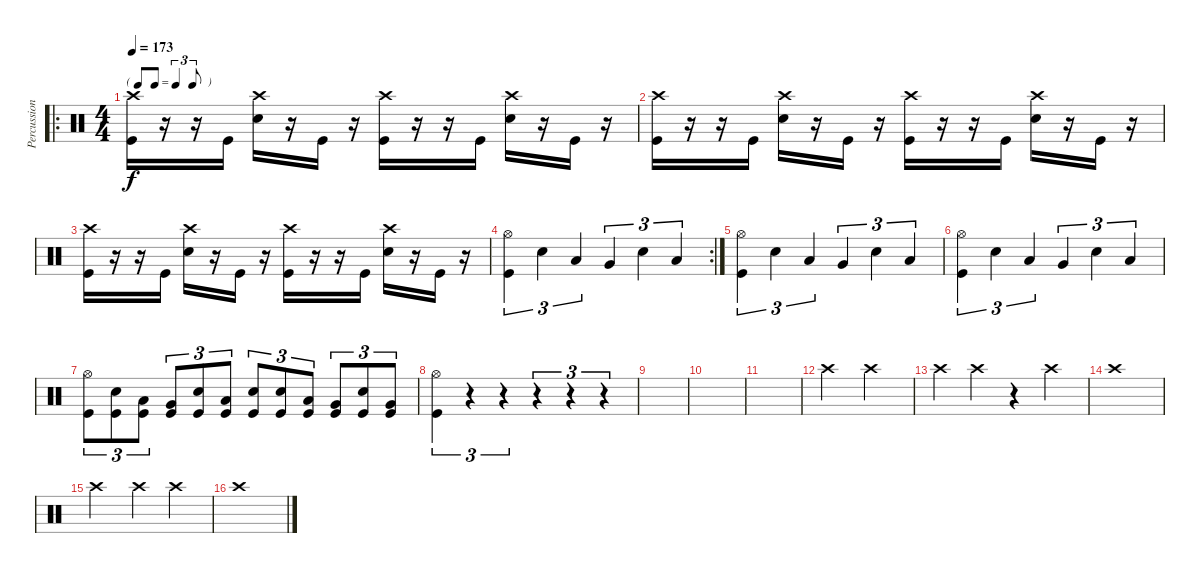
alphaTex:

\track ("Percussion" "Percussion") {instrument percussion}
\staff {score}
\articulation defaults
\ro
\ts (4 4)
\tf triplet8th
\tempo 173
\clef neutral
\ks c
("Crash high (hit)" "Kick (hit)").16{dy f} r.16 r.16 "Kick (hit)".16 ("Crash high (hit)" "Snare (hit) 2").16 r.16 "Kick (hit)".16 r.16 ("Crash high (hit)" "Kick (hit)").16 r.16 r.16 "Kick (hit)".16 ("Crash high (hit)" "Snare (hit) 2").16 r.16 "Kick (hit)".16 r.16 |
("Crash high (hit)" "Kick (hit)").16 r.16 r.16 "Kick (hit)".16 ("Crash high (hit)" "Snare (hit) 2").16 r.16 "Kick (hit)".16 r.16 ("Crash high (hit)" "Kick (hit)").16 r.16 r.16 "Kick (hit)".16 ("Crash high (hit)" "Snare (hit) 2").16 r.16 "Kick (hit)".16 r.16 |
("Crash high (hit)" "Kick (hit)").16 r.16 r.16 "Kick (hit)".16 ("Crash high (hit)" "Snare (hit) 2").16 r.16 "Kick (hit)".16 r.16 ("Crash high (hit)" "Kick (hit)").16 r.16 r.16 "Kick (hit)".16 ("Crash high (hit)" "Snare (hit) 2").16 r.16 "Kick (hit)".16 r.16 |
\rc 2
("Hi-Hat (open)" "Kick (hit)").4{tu (3 2)} "Snare (hit) 2".4{tu (3 2)} "Low Tom (hit)".4{tu (3 2)} "Very Low Tom (hit)".4{tu (3 2)} "Snare (hit) 2".4{tu (3 2)} "Low Floor Tom (hit)".4{tu (3 2)} |
("Hi-Hat (open)" "Kick (hit)").4{tu (3 2)} "Snare (hit) 2".4{tu (3 2)} "Low Tom (hit)".4{tu (3 2)} "Very Low Tom (hit)".4{tu (3 2)} "Snare (hit) 2".4{tu (3 2)} "Low Floor Tom (hit)".4{tu (3 2)} |
("Hi-Hat (open)" "Kick (hit)").4{tu (3 2)} "Snare (hit) 2".4{tu (3 2)} "Low Tom (hit)".4{tu (3 2)} "Very Low Tom (hit)".4{tu (3 2)} "Snare (hit) 2".4{tu (3 2)} "Low Floor Tom (hit)".4{tu (3 2)} |
("Hi-Hat (open)" "Kick (hit)").8{tu (3 2)} ("Snare (hit) 2" "Kick (hit)").8{tu (3 2)} ("Low Tom (hit)" "Kick (hit)").8{tu (3 2)} ("Very Low Tom (hit)" "Kick (hit)").8{tu (3 2)} ("Snare (hit) 2" "Kick (hit)").8{tu (3 2)} ("Low Floor Tom (hit)" "Kick (hit)").8{tu (3 2)} ("Snare (hit) 2" "Kick (hit)").8{tu (3 2)} ("Snare (hit) 2" "Kick (hit)").8{tu (3 2)} ("Low Tom (hit)" "Kick (hit)").8{tu (3 2)} ("Very Low Tom (hit)" "Kick (hit)").8{tu (3 2)} ("Snare (hit) 2" "Kick (hit)").8{tu (3 2)} ("Very Low Tom (hit)" "Kick (hit)").8{tu (3 2)} |
("Hi-Hat (open)" "Kick (hit)").4{tu (3 2)} r.4{tu (3 2)} r.4{tu (3 2)} r.4{tu (3 2)} r.4{tu (3 2)} r.4{tu (3 2)} |
|
|
|
"Crash high (hit)".2 "Crash high (hit)".2 |
"Crash high (hit)".4 "Crash high (hit)".4 r.4 "Crash high (hit)".4 |
"Crash high (hit)".1 |
"Crash high (hit)".2 "Crash high (hit)".4 "Crash high (hit)".4 |
"Crash high (hit)".1
